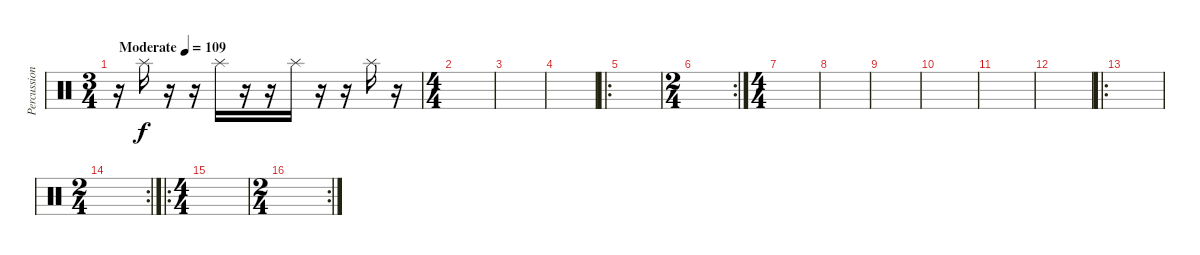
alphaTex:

\track ("Percussion" "Percussion") {instrument percussion}
\staff {score}
\articulation defaults
\ts (3 4)
\tempo (109 "Moderate")
\clef neutral
\ks c
r.16{dy f} "Splash (hit)".16 r.16 r.16 "Splash (hit)".16 r.16 r.16 "Splash (hit)".16 r.16 r.16 "Splash (hit)".16 r.16 |
\ts (4 4)
|
|
|
\ro
|
\rc 2
\ts (2 4)
|
\ts (4 4)
|
|
|
|
|
|
\ro
|
\rc 2
\ts (2 4)
|
\ro
\ts (4 4)
|
\rc 2
\ts (2 4)
